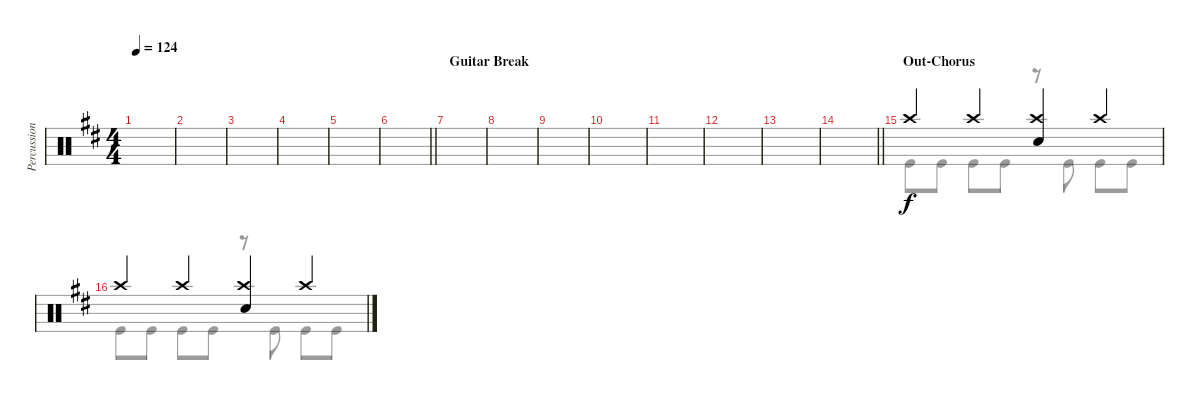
\track ("Percussion" "Percussion") {instrument percussion}
\staff {score}
\articulation defaults
\voice
\ts (4 4)
\tempo 124
\clef neutral
\ks d
|
|
|
|
|
\barLineRight lightlight
|
\section ("" "Guitar Break")
|
|
|
|
|
|
|
\barLineRight lightlight
|
\section ("" "Out-Chorus")
"Crash high (hit)".4 "Crash high (hit)".4 ("Crash high (hit)" "Snare (hit) 2").4 "Crash high (hit)".4 |
"Crash high (hit)".4 "Crash high (hit)".4 ("Crash high (hit)" "Snare (hit) 2").4 "Crash high (hit)".4
\voice
\clef neutral
\ottava regular
\simile none
\ks d
|
|
|
|
|
\barLineRight lightlight
|
|
|
|
|
|
|
|
\barLineRight lightlight
|
"Kick (hit)".8 "Kick (hit)".8 "Kick (hit)".8 "Kick (hit)".8 r.8 "Kick (hit)".8 "Kick (hit)".8 "Kick (hit)".8 |
"Kick (hit)".8 "Kick (hit)".8 "Kick (hit)".8 "Kick (hit)".8 r.8 "Kick (hit)".8 "Kick (hit)".8 "Kick (hit)".8
